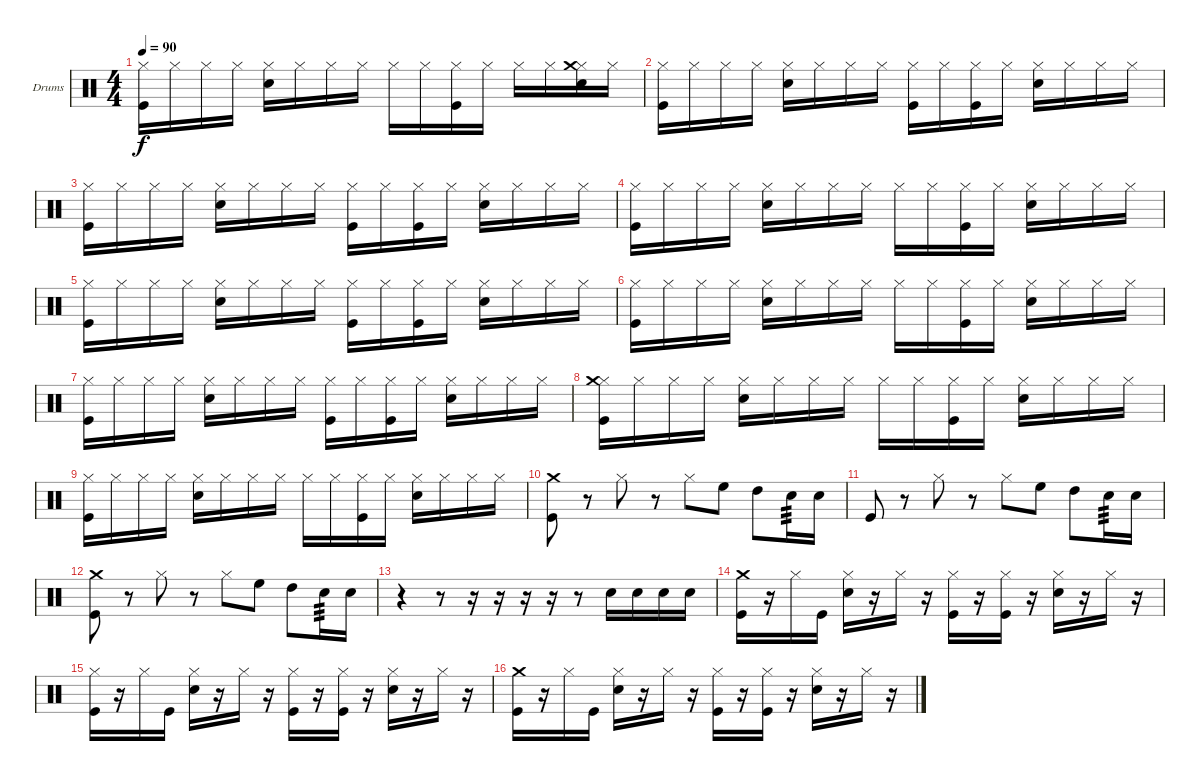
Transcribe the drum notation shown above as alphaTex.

\bracketExtendMode groupsimilarinstruments
\firstSystemTrackNameOrientation horizontal
\otherSystemsTrackNameOrientation horizontal
\track ("Drumkit" "Drums") {instrument percussion}
\staff {score}
\articulation defaults
\ts (4 4)
\tempo 90
\clef neutral
\ks c
("Kick (hit)" "Hi-Hat (closed)").16{dy f} "Hi-Hat (closed)".16 "Hi-Hat (closed)".16 "Hi-Hat (closed)".16 ("Snare (hit) 2" "Hi-Hat (closed)").16 "Hi-Hat (closed)".16 "Hi-Hat (closed)".16 "Hi-Hat (closed)".16 "Hi-Hat (closed)".16 "Hi-Hat (closed)".16 ("Kick (hit)" "Hi-Hat (closed)").16 "Hi-Hat (closed)".16 "Hi-Hat (closed)".16 "Hi-Hat (closed)".16 ("Snare (hit) 2" "Hi-Hat (closed)" "Crash medium (hit)").16 "Hi-Hat (closed)".16 |
("Kick (hit)" "Hi-Hat (closed)").16 "Hi-Hat (closed)".16 "Hi-Hat (closed)".16 "Hi-Hat (closed)".16 ("Snare (hit) 2" "Hi-Hat (closed)").16 "Hi-Hat (closed)".16 "Hi-Hat (closed)".16 "Hi-Hat (closed)".16 ("Kick (hit)" "Hi-Hat (closed)").16 "Hi-Hat (closed)".16 ("Kick (hit)" "Hi-Hat (closed)").16 "Hi-Hat (closed)".16 ("Snare (hit) 2" "Hi-Hat (closed)").16 "Hi-Hat (closed)".16 "Hi-Hat (closed)".16 "Hi-Hat (closed)".16 |
("Kick (hit)" "Hi-Hat (closed)").16 "Hi-Hat (closed)".16 "Hi-Hat (closed)".16 "Hi-Hat (closed)".16 ("Snare (hit) 2" "Hi-Hat (closed)").16 "Hi-Hat (closed)".16 "Hi-Hat (closed)".16 "Hi-Hat (closed)".16 ("Kick (hit)" "Hi-Hat (closed)").16 "Hi-Hat (closed)".16 ("Kick (hit)" "Hi-Hat (closed)").16 "Hi-Hat (closed)".16 ("Snare (hit) 2" "Hi-Hat (closed)").16 "Hi-Hat (closed)".16 "Hi-Hat (closed)".16 "Hi-Hat (closed)".16 |
("Kick (hit)" "Hi-Hat (closed)").16 "Hi-Hat (closed)".16 "Hi-Hat (closed)".16 "Hi-Hat (closed)".16 ("Snare (hit) 2" "Hi-Hat (closed)").16 "Hi-Hat (closed)".16 "Hi-Hat (closed)".16 "Hi-Hat (closed)".16 "Hi-Hat (closed)".16 "Hi-Hat (closed)".16 ("Kick (hit)" "Hi-Hat (closed)").16 "Hi-Hat (closed)".16 ("Snare (hit) 2" "Hi-Hat (closed)").16 "Hi-Hat (closed)".16 "Hi-Hat (closed)".16 "Hi-Hat (closed)".16 |
("Kick (hit)" "Hi-Hat (closed)").16 "Hi-Hat (closed)".16 "Hi-Hat (closed)".16 "Hi-Hat (closed)".16 ("Snare (hit) 2" "Hi-Hat (closed)").16 "Hi-Hat (closed)".16 "Hi-Hat (closed)".16 "Hi-Hat (closed)".16 ("Kick (hit)" "Hi-Hat (closed)").16 "Hi-Hat (closed)".16 ("Kick (hit)" "Hi-Hat (closed)").16 "Hi-Hat (closed)".16 ("Snare (hit) 2" "Hi-Hat (closed)").16 "Hi-Hat (closed)".16 "Hi-Hat (closed)".16 "Hi-Hat (closed)".16 |
("Kick (hit)" "Hi-Hat (closed)").16 "Hi-Hat (closed)".16 "Hi-Hat (closed)".16 "Hi-Hat (closed)".16 ("Snare (hit) 2" "Hi-Hat (closed)").16 "Hi-Hat (closed)".16 "Hi-Hat (closed)".16 "Hi-Hat (closed)".16 "Hi-Hat (closed)".16 "Hi-Hat (closed)".16 ("Kick (hit)" "Hi-Hat (closed)").16 "Hi-Hat (closed)".16 ("Snare (hit) 2" "Hi-Hat (closed)").16 "Hi-Hat (closed)".16 "Hi-Hat (closed)".16 "Hi-Hat (closed)".16 |
("Kick (hit)" "Hi-Hat (closed)").16 "Hi-Hat (closed)".16 "Hi-Hat (closed)".16 "Hi-Hat (closed)".16 ("Snare (hit) 2" "Hi-Hat (closed)").16 "Hi-Hat (closed)".16 "Hi-Hat (closed)".16 "Hi-Hat (closed)".16 ("Kick (hit)" "Hi-Hat (closed)").16 "Hi-Hat (closed)".16 ("Kick (hit)" "Hi-Hat (closed)").16 "Hi-Hat (closed)".16 ("Snare (hit) 2" "Hi-Hat (closed)").16 "Hi-Hat (closed)".16 "Hi-Hat (closed)".16 "Hi-Hat (closed)".16 |
("Kick (hit)" "Hi-Hat (closed)" "Crash medium (hit)").16 "Hi-Hat (closed)".16 "Hi-Hat (closed)".16 "Hi-Hat (closed)".16 ("Snare (hit) 2" "Hi-Hat (closed)").16 "Hi-Hat (closed)".16 "Hi-Hat (closed)".16 "Hi-Hat (closed)".16 "Hi-Hat (closed)".16 "Hi-Hat (closed)".16 ("Kick (hit)" "Hi-Hat (closed)").16 "Hi-Hat (closed)".16 ("Snare (hit) 2" "Hi-Hat (closed)").16 "Hi-Hat (closed)".16 "Hi-Hat (closed)".16 "Hi-Hat (closed)".16 |
("Kick (hit)" "Hi-Hat (closed)").16 "Hi-Hat (closed)".16 "Hi-Hat (closed)".16 "Hi-Hat (closed)".16 ("Snare (hit) 2" "Hi-Hat (closed)").16 "Hi-Hat (closed)".16 "Hi-Hat (closed)".16 "Hi-Hat (closed)".16 "Hi-Hat (closed)".16 "Hi-Hat (closed)".16 ("Kick (hit)" "Hi-Hat (closed)").16 "Hi-Hat (closed)".16 ("Snare (hit) 2" "Hi-Hat (closed)").16 "Hi-Hat (closed)".16 "Hi-Hat (closed)".16 "Hi-Hat (closed)".16 |
("Kick (hit)" "Crash medium (hit)").8 r.8 "Hi-Hat (closed)".8 r.8 "Hi-Hat (closed)".8 "High Floor Tom (hit)".8 "High Tom (hit)".8 "Snare (hit) 2".16{tp 3} "Snare (hit) 2".16 |
"Kick (hit)".8 r.8 "Hi-Hat (closed)".8 r.8 "Hi-Hat (closed)".8 "High Floor Tom (hit)".8 "High Tom (hit)".8 "Snare (hit) 2".16{tp 3} "Snare (hit) 2".16 |
("Kick (hit)" "Crash medium (hit)").8 r.8 "Hi-Hat (closed)".8 r.8 "Hi-Hat (closed)".8 "High Floor Tom (hit)".8 "High Tom (hit)".8 "Snare (hit) 2".16{tp 3} "Snare (hit) 2".16 |
r.4 r.8 r.16 r.16 r.16 r.16 r.8 "Snare (hit) 2".16 "Snare (hit) 2".16 "Snare (hit) 2".16 "Snare (hit) 2".16 |
("Kick (hit)" "Crash medium (hit)").16 r.16 "Hi-Hat (closed)".16 "Kick (hit)".16 ("Snare (hit) 2" "Hi-Hat (closed)").16 r.16 "Hi-Hat (closed)".16 r.16 ("Kick (hit)" "Hi-Hat (closed)").16 r.16 ("Kick (hit)" "Hi-Hat (closed)").16 r.16 ("Snare (hit) 2" "Hi-Hat (closed)").16 r.16 "Hi-Hat (closed)".16 r.16 |
("Kick (hit)" "Hi-Hat (closed)").16 r.16 "Hi-Hat (closed)".16 "Kick (hit)".16 ("Snare (hit) 2" "Hi-Hat (closed)").16 r.16 "Hi-Hat (closed)".16 r.16 ("Kick (hit)" "Hi-Hat (closed)").16 r.16 ("Kick (hit)" "Hi-Hat (closed)").16 r.16 ("Snare (hit) 2" "Hi-Hat (closed)").16 r.16 "Hi-Hat (closed)".16 r.16 |
("Kick (hit)" "Crash medium (hit)").16 r.16 "Hi-Hat (closed)".16 "Kick (hit)".16 ("Snare (hit) 2" "Hi-Hat (closed)").16 r.16 "Hi-Hat (closed)".16 r.16 ("Kick (hit)" "Hi-Hat (closed)").16 r.16 ("Kick (hit)" "Hi-Hat (closed)").16 r.16 ("Snare (hit) 2" "Hi-Hat (closed)").16 r.16 "Hi-Hat (closed)".16 r.16
